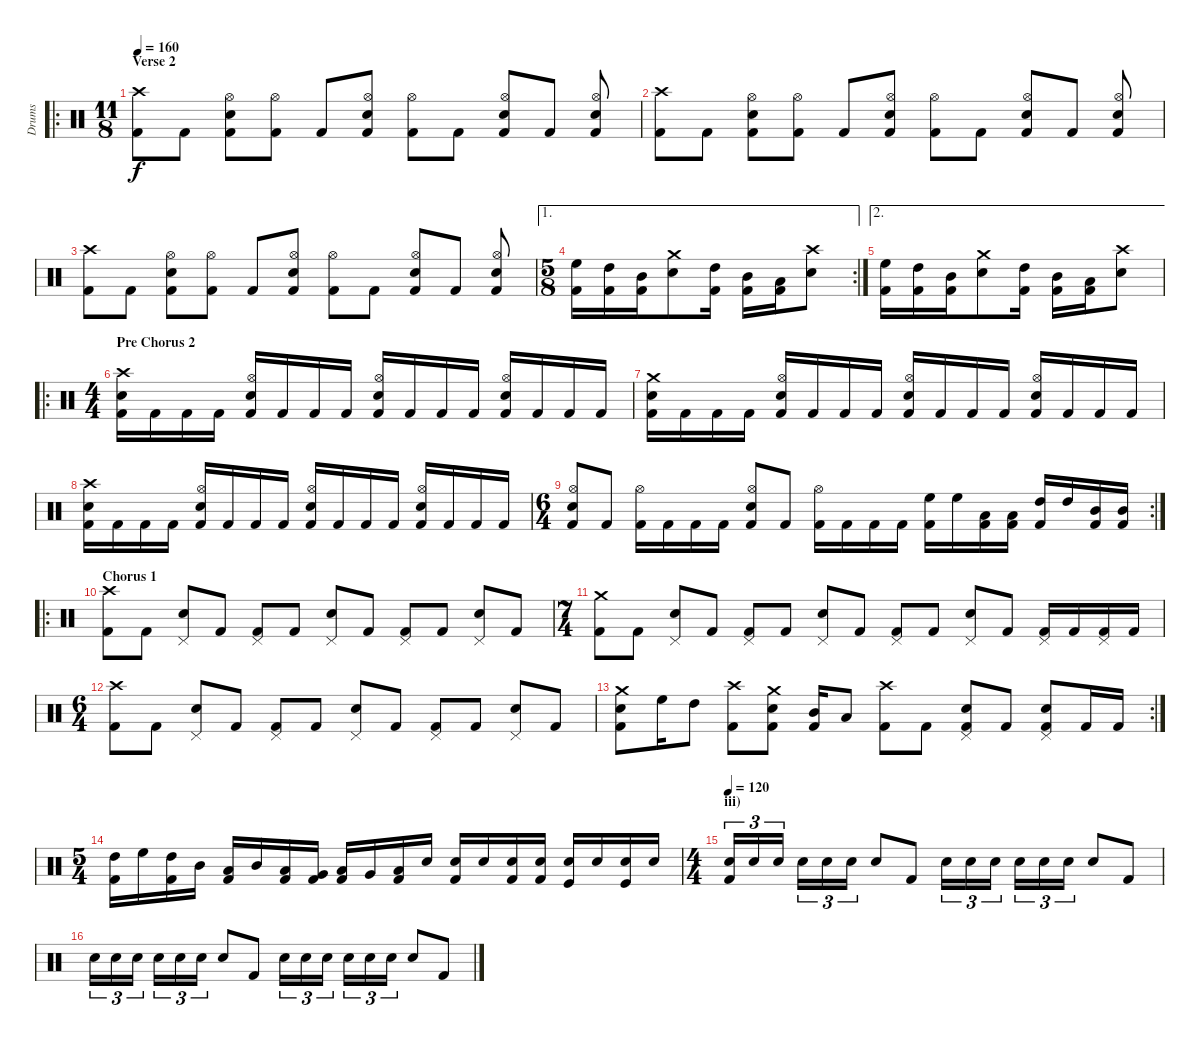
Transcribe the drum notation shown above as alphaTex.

\track ("Drums" "Drums") {instrument percussion}
\staff {score}
\articulation defaults
\ro
\ts (11 8)
\section ("" "Verse 2")
\tempo 160
\clef neutral
\ks c
("Crash high (hit)" "Kick (hit) 2").8{dy f} "Kick (hit) 2".8 ("Hi-Hat (open)" "Snare (hit) 2" "Kick (hit) 2").8 ("Hi-Hat (open)" "Kick (hit) 2").8 "Kick (hit) 2".8 ("Hi-Hat (open)" "Snare (hit) 2" "Kick (hit) 2").8 ("Hi-Hat (open)" "Kick (hit) 2").8 "Kick (hit) 2".8 ("Hi-Hat (open)" "Snare (hit) 2" "Kick (hit) 2").8 "Kick (hit) 2".8 ("Hi-Hat (open)" "Snare (hit) 2" "Kick (hit) 2").8 |
("Crash high (hit)" "Kick (hit) 2").8 "Kick (hit) 2".8 ("Hi-Hat (open)" "Snare (hit) 2" "Kick (hit) 2").8 ("Hi-Hat (open)" "Kick (hit) 2").8 "Kick (hit) 2".8 ("Hi-Hat (open)" "Snare (hit) 2" "Kick (hit) 2").8 ("Hi-Hat (open)" "Kick (hit) 2").8 "Kick (hit) 2".8 ("Hi-Hat (open)" "Snare (hit) 2" "Kick (hit) 2").8 "Kick (hit) 2".8 ("Hi-Hat (open)" "Snare (hit) 2" "Kick (hit) 2").8 |
("Crash high (hit)" "Kick (hit) 2").8 "Kick (hit) 2".8 ("Hi-Hat (open)" "Snare (hit) 2" "Kick (hit) 2").8 ("Hi-Hat (open)" "Kick (hit) 2").8 "Kick (hit) 2".8 ("Hi-Hat (open)" "Snare (hit) 2" "Kick (hit) 2").8 ("Hi-Hat (open)" "Kick (hit) 2").8 "Kick (hit) 2".8 ("Hi-Hat (open)" "Snare (hit) 2" "Kick (hit) 2").8 "Kick (hit) 2".8 ("Hi-Hat (open)" "Snare (hit) 2" "Kick (hit) 2").8 |
\ae 1
\rc 2
\ts (5 8)
("High Floor Tom (hit)" "Kick (hit) 2").16 ("High Tom (hit)" "Kick (hit) 2").16 ("Mid Tom (hit)" "Kick (hit) 2").16 ("Crash medium (hit)" "Snare (hit) 2").8 ("High Tom (hit)" "Kick (hit) 2").16 ("Mid Tom (hit)" "Kick (hit) 2").16 ("Low Tom (hit)" "Kick (hit) 2").16 ("Crash high (hit)" "Snare (hit) 2").8 |
\ae 2
("High Floor Tom (hit)" "Kick (hit) 2").16 ("High Tom (hit)" "Kick (hit) 2").16 ("Mid Tom (hit)" "Kick (hit) 2").16 ("Crash medium (hit)" "Snare (hit) 2").8 ("High Tom (hit)" "Kick (hit) 2").16 ("Mid Tom (hit)" "Kick (hit) 2").16 ("Low Tom (hit)" "Kick (hit) 2").16 ("Crash high (hit)" "Snare (hit) 2").8 |
\ro
\ts (4 4)
\section ("" "Pre Chorus 2")
("Crash high (hit)" "Snare (hit) 2" "Kick (hit) 2").16 "Kick (hit) 2".16 "Kick (hit) 2".16 "Kick (hit) 2".16 ("Hi-Hat (open)" "Snare (hit) 2" "Kick (hit) 2").16 "Kick (hit) 2".16 "Kick (hit) 2".16 "Kick (hit) 2".16 ("Hi-Hat (open)" "Snare (hit) 2" "Kick (hit) 2").16 "Kick (hit) 2".16 "Kick (hit) 2".16 "Kick (hit) 2".16 ("Hi-Hat (open)" "Snare (hit) 2" "Kick (hit) 2").16 "Kick (hit) 2".16 "Kick (hit) 2".16 "Kick (hit) 2".16 |
("Crash medium (hit)" "Snare (hit) 2" "Kick (hit) 2").16 "Kick (hit) 2".16 "Kick (hit) 2".16 "Kick (hit) 2".16 ("Hi-Hat (open)" "Snare (hit) 2" "Kick (hit) 2").16 "Kick (hit) 2".16 "Kick (hit) 2".16 "Kick (hit) 2".16 ("Hi-Hat (open)" "Snare (hit) 2" "Kick (hit) 2").16 "Kick (hit) 2".16 "Kick (hit) 2".16 "Kick (hit) 2".16 ("Hi-Hat (open)" "Snare (hit) 2" "Kick (hit) 2").16 "Kick (hit) 2".16 "Kick (hit) 2".16 "Kick (hit) 2".16 |
("Crash high (hit)" "Snare (hit) 2" "Kick (hit) 2").16 "Kick (hit) 2".16 "Kick (hit) 2".16 "Kick (hit) 2".16 ("Hi-Hat (open)" "Snare (hit) 2" "Kick (hit) 2").16 "Kick (hit) 2".16 "Kick (hit) 2".16 "Kick (hit) 2".16 ("Hi-Hat (open)" "Snare (hit) 2" "Kick (hit) 2").16 "Kick (hit) 2".16 "Kick (hit) 2".16 "Kick (hit) 2".16 ("Hi-Hat (open)" "Snare (hit) 2" "Kick (hit) 2").16 "Kick (hit) 2".16 "Kick (hit) 2".16 "Kick (hit) 2".16 |
\rc 2
\ts (6 4)
("Hi-Hat (open)" "Snare (hit) 2" "Kick (hit) 2").8 "Kick (hit) 2".8 ("Hi-Hat (open)" "Kick (hit) 2").16 "Kick (hit) 2".16 "Kick (hit) 2".16 "Kick (hit) 2".16 ("Hi-Hat (open)" "Snare (hit) 2" "Kick (hit) 2").8 "Kick (hit) 2".8 ("Hi-Hat (open)" "Kick (hit) 2").16 "Kick (hit) 2".16 "Kick (hit) 2".16 "Kick (hit) 2".16 ("High Floor Tom (hit)" "Kick (hit) 2").16 "High Floor Tom (hit)".16 ("Low Tom (hit)" "Kick (hit) 2").16 ("Low Tom (hit)" "Kick (hit) 2").16 ("High Tom (hit)" "Kick (hit) 2").16 "High Tom (hit)".16 ("Mid Tom (hit)" "Kick (hit) 2").16 ("Mid Tom (hit)" "Kick (hit) 2").16 |
\ro
\section ("" "Chorus 1")
("Crash high (hit)" "Kick (hit) 2").8 "Kick (hit) 2".8 ("Pedal Hi-Hat (hit)" "Snare (hit) 2").8 "Kick (hit) 2".8 ("Pedal Hi-Hat (hit)" "Kick (hit) 2").8 "Kick (hit) 2".8 ("Pedal Hi-Hat (hit)" "Snare (hit) 2").8 "Kick (hit) 2".8 ("Pedal Hi-Hat (hit)" "Kick (hit) 2").8 "Kick (hit) 2".8 ("Pedal Hi-Hat (hit)" "Snare (hit) 2").8 "Kick (hit) 2".8 |
\ts (7 4)
("Crash medium (hit)" "Kick (hit) 2").8 "Kick (hit) 2".8 ("Pedal Hi-Hat (hit)" "Snare (hit) 2").8 "Kick (hit) 2".8 ("Pedal Hi-Hat (hit)" "Kick (hit) 2").8 "Kick (hit) 2".8 ("Pedal Hi-Hat (hit)" "Snare (hit) 2").8 "Kick (hit) 2".8 ("Pedal Hi-Hat (hit)" "Kick (hit) 2").8 "Kick (hit) 2".8 ("Pedal Hi-Hat (hit)" "Snare (hit) 2").8 "Kick (hit) 2".8 ("Pedal Hi-Hat (hit)" "Kick (hit) 2").16 "Kick (hit) 2".16 ("Pedal Hi-Hat (hit)" "Kick (hit) 2").16 "Kick (hit) 2".16 |
\ts (6 4)
("Crash high (hit)" "Kick (hit) 2").8 "Kick (hit) 2".8 ("Pedal Hi-Hat (hit)" "Snare (hit) 2").8 "Kick (hit) 2".8 ("Pedal Hi-Hat (hit)" "Kick (hit) 2").8 "Kick (hit) 2".8 ("Pedal Hi-Hat (hit)" "Snare (hit) 2").8 "Kick (hit) 2".8 ("Pedal Hi-Hat (hit)" "Kick (hit) 2").8 "Kick (hit) 2".8 ("Pedal Hi-Hat (hit)" "Snare (hit) 2").8 "Kick (hit) 2".8 |
\rc 2
("Crash medium (hit)" "Snare (hit) 2" "Kick (hit) 2").8 "High Floor Tom (hit)".16 "High Tom (hit)".8 ("Crash high (hit)" "Kick (hit) 2").8 ("Crash medium (hit)" "Snare (hit) 2" "Kick (hit) 2").8 ("Mid Tom (hit)" "Kick (hit) 2").16 "Low Tom (hit)".8 ("Crash high (hit)" "Kick (hit) 2").8 "Kick (hit) 2".8 ("Pedal Hi-Hat (hit)" "Snare (hit) 2" "Kick (hit) 2").8 "Kick (hit) 2".8 ("Pedal Hi-Hat (hit)" "Snare (hit) 2" "Kick (hit) 2").8 "Kick (hit) 2".16 "Kick (hit) 2".16 |
\ts (5 4)
("High Tom (hit)" "Kick (hit) 2").16 "High Floor Tom (hit)".16 ("High Tom (hit)" "Kick (hit) 2").16 "Mid Tom (hit)".16 ("Low Tom (hit)" "Kick (hit) 2").16 "Mid Tom (hit)".16 ("Low Tom (hit)" "Kick (hit) 2").16 ("Very Low Tom (hit)" "Kick (hit) 2").16 ("Low Floor Tom (hit)" "Kick (hit) 2").16 "Very Low Tom (hit)".16 ("Low Floor Tom (hit)" "Kick (hit) 2").16 "Electric Snare (hit)".16 ("Snare (hit) 2" "Kick (hit) 2").16 "Snare (hit) 2".16 ("Snare (hit) 2" "Kick (hit) 2").16 ("Snare (hit) 2" "Kick (hit) 2").16 ("Snare (hit) 2" "Kick (hit)").16 "Snare (hit) 2".16 ("Snare (hit) 2" "Kick (hit)").16 "Snare (hit) 2".16 |
\ts (4 4)
\section ("" "iii) ")
\tempo 120
("Kick (hit) 2" "Electric Snare (hit)").16{tu (3 2)} "Electric Snare (hit)".16{tu (3 2)} "Electric Snare (hit)".16{tu (3 2)} "Electric Snare (hit)".16{tu (3 2)} "Electric Snare (hit)".16{tu (3 2)} "Electric Snare (hit)".16{tu (3 2)} "Electric Snare (hit)".8 "Kick (hit) 2".8 "Electric Snare (hit)".16{tu (3 2)} "Electric Snare (hit)".16{tu (3 2)} "Electric Snare (hit)".16{tu (3 2)} "Electric Snare (hit)".16{tu (3 2)} "Electric Snare (hit)".16{tu (3 2)} "Electric Snare (hit)".16{tu (3 2)} "Electric Snare (hit)".8 "Kick (hit) 2".8 |
"Electric Snare (hit)".16{tu (3 2)} "Electric Snare (hit)".16{tu (3 2)} "Electric Snare (hit)".16{tu (3 2)} "Electric Snare (hit)".16{tu (3 2)} "Electric Snare (hit)".16{tu (3 2)} "Electric Snare (hit)".16{tu (3 2)} "Electric Snare (hit)".8 "Kick (hit) 2".8 "Electric Snare (hit)".16{tu (3 2)} "Electric Snare (hit)".16{tu (3 2)} "Electric Snare (hit)".16{tu (3 2)} "Electric Snare (hit)".16{tu (3 2)} "Electric Snare (hit)".16{tu (3 2)} "Electric Snare (hit)".16{tu (3 2)} "Electric Snare (hit)".8 "Kick (hit) 2".8
